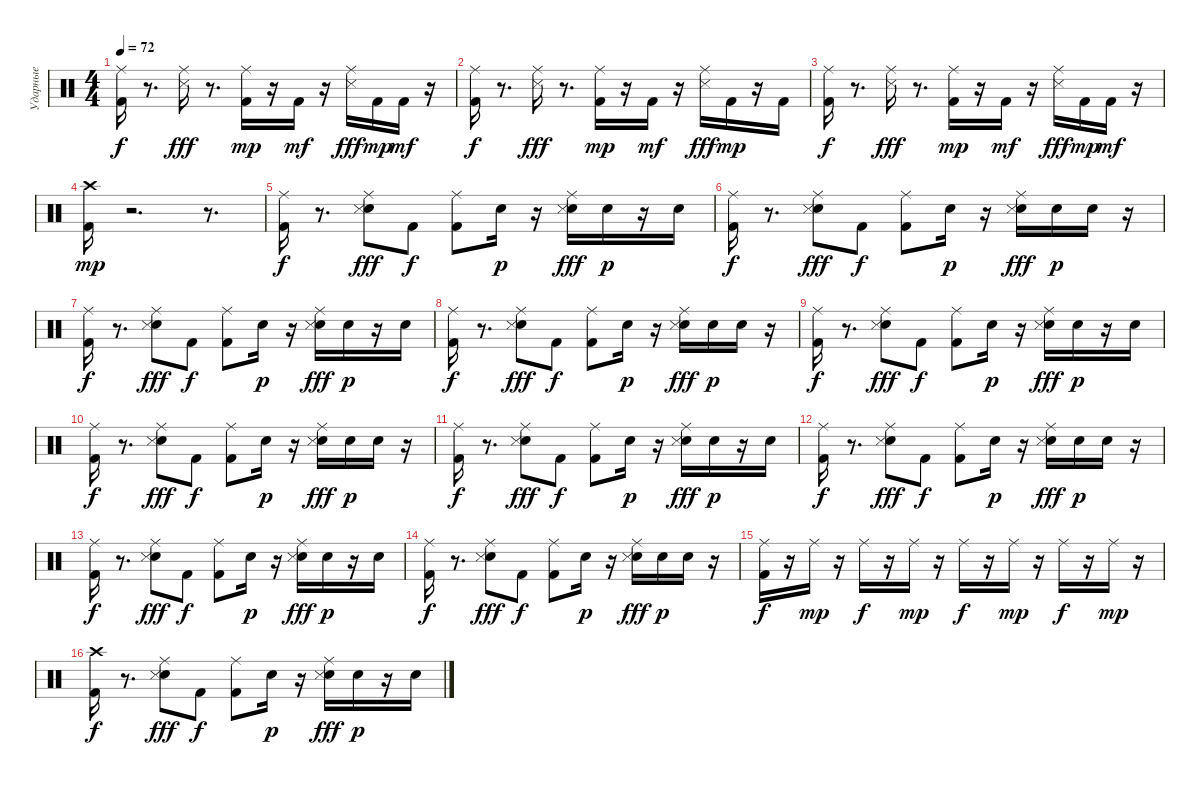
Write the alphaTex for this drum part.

\track ("Ударные" "Ударные") {instrument percussion}
\staff {score}
\articulation defaults
\ts (4 4)
\tempo 72
\clef neutral
\ks c
("Kick (hit) 2" "Ride (middle)").16{dy f} r.8{d} ("Snare (side stick) 3" "Ride (middle)").16{dy fff} r.8{d} ("Kick (hit) 2" "Ride (middle)").16{dy mp} r.16 "Kick (hit) 2".16{dy mf} r.16 ("Snare (side stick) 3" "Ride (middle)").16{dy fff} "Kick (hit) 2".16{dy mp} "Kick (hit) 2".16{dy mf} r.16 |
("Kick (hit) 2" "Ride (middle)").16{dy f} r.8{d} ("Snare (side stick) 3" "Ride (middle)").16{dy fff} r.8{d} ("Kick (hit) 2" "Ride (middle)").16{dy mp} r.16 "Kick (hit) 2".16{dy mf} r.16 ("Snare (side stick) 3" "Ride (middle)").16{dy fff} "Kick (hit) 2".16{dy mp} r.16 "Kick (hit) 2".16 |
("Kick (hit) 2" "Ride (middle)").16{dy f} r.8{d} ("Snare (side stick) 3" "Ride (middle)").16{dy fff} r.8{d} ("Kick (hit) 2" "Ride (middle)").16{dy mp} r.16 "Kick (hit) 2".16{dy mf} r.16 ("Snare (side stick) 3" "Ride (middle)").16{dy fff} "Kick (hit) 2".16{dy mp} "Kick (hit) 2".16{dy mf} r.16 |
("Kick (hit) 2" "Crash high (hit)").16{dy mp} r.2{d} r.8{d} |
("Kick (hit) 2" "Ride (middle)").16{dy f} r.8{d} ("Electric Snare (hit)" "Snare (side stick) 3" "Ride (middle)").8{dy fff} "Kick (hit) 2".8{dy f} ("Kick (hit) 2" "Ride (middle)").8 "Snare (hit) 2".16{dy p} r.16 ("Electric Snare (hit)" "Snare (side stick) 3" "Ride (middle)").16{dy fff} "Snare (hit) 2".16{dy p} r.16 "Snare (hit) 2".16 |
("Kick (hit) 2" "Ride (middle)").16{dy f} r.8{d} ("Electric Snare (hit)" "Snare (side stick) 3" "Ride (middle)").8{dy fff} "Kick (hit) 2".8{dy f} ("Kick (hit) 2" "Ride (middle)").8 "Snare (hit) 2".16{dy p} r.16 ("Electric Snare (hit)" "Snare (side stick) 3" "Ride (middle)").16{dy fff} "Snare (hit) 2".16{dy p} "Snare (hit) 2".16 r.16 |
("Kick (hit) 2" "Ride (middle)").16{dy f} r.8{d} ("Electric Snare (hit)" "Snare (side stick) 3" "Ride (middle)").8{dy fff} "Kick (hit) 2".8{dy f} ("Kick (hit) 2" "Ride (middle)").8 "Snare (hit) 2".16{dy p} r.16 ("Electric Snare (hit)" "Snare (side stick) 3" "Ride (middle)").16{dy fff} "Snare (hit) 2".16{dy p} r.16 "Snare (hit) 2".16 |
("Kick (hit) 2" "Ride (middle)").16{dy f} r.8{d} ("Electric Snare (hit)" "Snare (side stick) 3" "Ride (middle)").8{dy fff} "Kick (hit) 2".8{dy f} ("Kick (hit) 2" "Ride (middle)").8 "Snare (hit) 2".16{dy p} r.16 ("Electric Snare (hit)" "Snare (side stick) 3" "Ride (middle)").16{dy fff} "Snare (hit) 2".16{dy p} "Snare (hit) 2".16 r.16 |
("Kick (hit) 2" "Ride (middle)").16{dy f} r.8{d} ("Electric Snare (hit)" "Snare (side stick) 3" "Ride (middle)").8{dy fff} "Kick (hit) 2".8{dy f} ("Kick (hit) 2" "Ride (middle)").8 "Snare (hit) 2".16{dy p} r.16 ("Electric Snare (hit)" "Snare (side stick) 3" "Ride (middle)").16{dy fff} "Snare (hit) 2".16{dy p} r.16 "Snare (hit) 2".16 |
("Kick (hit) 2" "Ride (middle)").16{dy f} r.8{d} ("Electric Snare (hit)" "Snare (side stick) 3" "Ride (middle)").8{dy fff} "Kick (hit) 2".8{dy f} ("Kick (hit) 2" "Ride (middle)").8 "Snare (hit) 2".16{dy p} r.16 ("Electric Snare (hit)" "Snare (side stick) 3" "Ride (middle)").16{dy fff} "Snare (hit) 2".16{dy p} "Snare (hit) 2".16 r.16 |
("Kick (hit) 2" "Ride (middle)").16{dy f} r.8{d} ("Electric Snare (hit)" "Snare (side stick) 3" "Ride (middle)").8{dy fff} "Kick (hit) 2".8{dy f} ("Kick (hit) 2" "Ride (middle)").8 "Snare (hit) 2".16{dy p} r.16 ("Electric Snare (hit)" "Snare (side stick) 3" "Ride (middle)").16{dy fff} "Snare (hit) 2".16{dy p} r.16 "Snare (hit) 2".16 |
("Kick (hit) 2" "Ride (middle)").16{dy f} r.8{d} ("Electric Snare (hit)" "Snare (side stick) 3" "Ride (middle)").8{dy fff} "Kick (hit) 2".8{dy f} ("Kick (hit) 2" "Ride (middle)").8 "Snare (hit) 2".16{dy p} r.16 ("Electric Snare (hit)" "Snare (side stick) 3" "Ride (middle)").16{dy fff} "Snare (hit) 2".16{dy p} "Snare (hit) 2".16 r.16 |
("Kick (hit) 2" "Ride (middle)").16{dy f} r.8{d} ("Electric Snare (hit)" "Snare (side stick) 3" "Ride (middle)").8{dy fff} "Kick (hit) 2".8{dy f} ("Kick (hit) 2" "Ride (middle)").8 "Snare (hit) 2".16{dy p} r.16 ("Electric Snare (hit)" "Snare (side stick) 3" "Ride (middle)").16{dy fff} "Snare (hit) 2".16{dy p} r.16 "Snare (hit) 2".16 |
("Kick (hit) 2" "Ride (middle)").16{dy f} r.8{d} ("Electric Snare (hit)" "Snare (side stick) 3" "Ride (middle)").8{dy fff} "Kick (hit) 2".8{dy f} ("Kick (hit) 2" "Ride (middle)").8 "Snare (hit) 2".16{dy p} r.16 ("Electric Snare (hit)" "Snare (side stick) 3" "Ride (middle)").16{dy fff} "Snare (hit) 2".16{dy p} "Snare (hit) 2".16 r.16 |
("Kick (hit) 2" "Ride (middle)").16{dy f} r.16 "Ride (middle)".16{dy mp} r.16 "Ride (middle)".16{dy f} r.16 "Ride (middle)".16{dy mp} r.16 "Ride (middle)".16{dy f} r.16 "Ride (middle)".16{dy mp} r.16 "Ride (middle)".16{dy f} r.16 "Ride (middle)".16{dy mp} r.16 |
("Kick (hit) 2" "Crash high (hit)").16{dy f} r.8{d} ("Electric Snare (hit)" "Snare (side stick) 3" "Ride (middle)").8{dy fff} "Kick (hit) 2".8{dy f} ("Kick (hit) 2" "Ride (middle)").8 "Snare (hit) 2".16{dy p} r.16 ("Electric Snare (hit)" "Snare (side stick) 3" "Ride (middle)").16{dy fff} "Snare (hit) 2".16{dy p} r.16 "Snare (hit) 2".16
